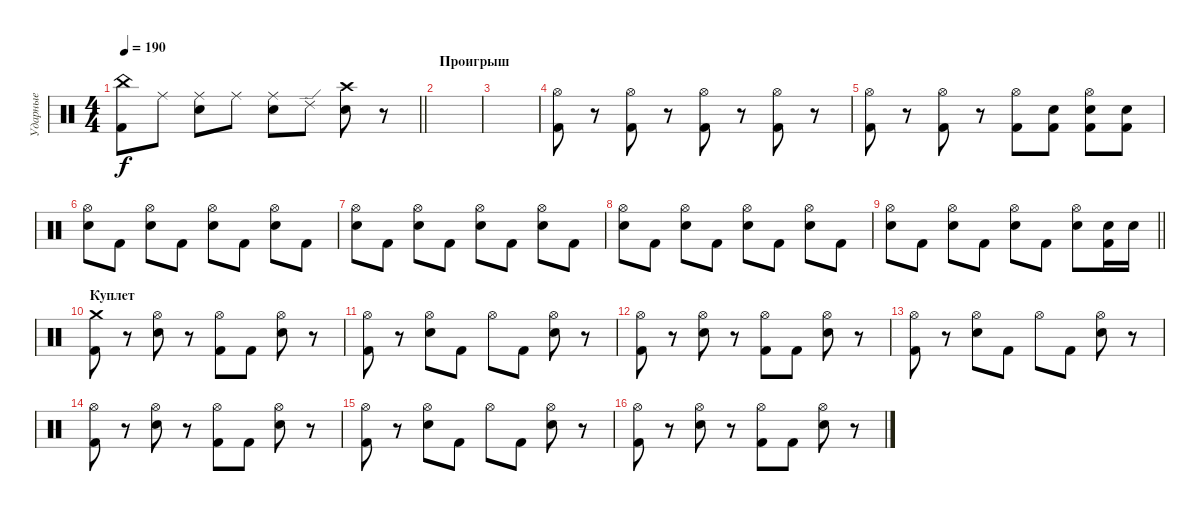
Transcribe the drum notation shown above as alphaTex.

\track ("Ударные" "Ударные") {instrument percussion}
\staff {score}
\articulation defaults
\ts (4 4)
\tempo 190
\clef neutral
\barLineRight lightlight
\ks c
("China (hit)" "Kick (hit) 2").8{dy f} "Ride (middle)".8 ("Ride (middle)" "Electric Snare (hit)").8 "Ride (middle)".8 ("Ride (middle)" "Electric Snare (hit)").8 "Ride (edge) 2".8 ("Crash high (hit)" "Electric Snare (hit)").8 r.8 |
\section ("" "Проигрыш")
|
|
("Hi-Hat (open)" "Kick (hit) 2").8 r.8 ("Hi-Hat (open)" "Kick (hit) 2").8 r.8 ("Hi-Hat (open)" "Kick (hit) 2").8 r.8 ("Hi-Hat (open)" "Kick (hit) 2").8 r.8 |
("Hi-Hat (open)" "Kick (hit) 2").8 r.8 ("Hi-Hat (open)" "Kick (hit) 2").8 r.8 ("Hi-Hat (open)" "Kick (hit) 2").8 ("Kick (hit) 2" "Electric Snare (hit)").8 ("Hi-Hat (open)" "Kick (hit) 2" "Electric Snare (hit)").8 ("Kick (hit) 2" "Electric Snare (hit)").8 |
("Hi-Hat (open)" "Electric Snare (hit)").8 "Kick (hit) 2".8 ("Hi-Hat (open)" "Electric Snare (hit)").8 "Kick (hit) 2".8 ("Hi-Hat (open)" "Electric Snare (hit)").8 "Kick (hit) 2".8 ("Hi-Hat (open)" "Electric Snare (hit)").8 "Kick (hit) 2".8 |
("Hi-Hat (open)" "Electric Snare (hit)").8 "Kick (hit) 2".8 ("Hi-Hat (open)" "Electric Snare (hit)").8 "Kick (hit) 2".8 ("Hi-Hat (open)" "Electric Snare (hit)").8 "Kick (hit) 2".8 ("Hi-Hat (open)" "Electric Snare (hit)").8 "Kick (hit) 2".8 |
("Hi-Hat (open)" "Electric Snare (hit)").8 "Kick (hit) 2".8 ("Hi-Hat (open)" "Electric Snare (hit)").8 "Kick (hit) 2".8 ("Hi-Hat (open)" "Electric Snare (hit)").8 "Kick (hit) 2".8 ("Hi-Hat (open)" "Electric Snare (hit)").8 "Kick (hit) 2".8 |
\barLineRight lightlight
("Hi-Hat (open)" "Electric Snare (hit)").8 "Kick (hit) 2".8 ("Hi-Hat (open)" "Electric Snare (hit)").8 "Kick (hit) 2".8 ("Hi-Hat (open)" "Electric Snare (hit)").8 "Kick (hit) 2".8 ("Hi-Hat (open)" "Electric Snare (hit)").8 ("Kick (hit) 2" "Electric Snare (hit)").16 "Electric Snare (hit)".16 |
\section ("" "Куплет")
("Crash medium (hit)" "Kick (hit) 2").8 r.8 ("Hi-Hat (open)" "Electric Snare (hit)").8 r.8 ("Hi-Hat (open)" "Kick (hit) 2").8 "Kick (hit) 2".8 ("Hi-Hat (open)" "Electric Snare (hit)").8 r.8 |
("Hi-Hat (open)" "Kick (hit) 2").8 r.8 ("Hi-Hat (open)" "Electric Snare (hit)").8 "Kick (hit) 2".8 "Hi-Hat (open)".8 "Kick (hit) 2".8 ("Hi-Hat (open)" "Electric Snare (hit)").8 r.8 |
("Hi-Hat (open)" "Kick (hit) 2").8 r.8 ("Hi-Hat (open)" "Electric Snare (hit)").8 r.8 ("Hi-Hat (open)" "Kick (hit) 2").8 "Kick (hit) 2".8 ("Hi-Hat (open)" "Electric Snare (hit)").8 r.8 |
("Hi-Hat (open)" "Kick (hit) 2").8 r.8 ("Hi-Hat (open)" "Electric Snare (hit)").8 "Kick (hit) 2".8 "Hi-Hat (open)".8 "Kick (hit) 2".8 ("Hi-Hat (open)" "Electric Snare (hit)").8 r.8 |
("Hi-Hat (open)" "Kick (hit) 2").8 r.8 ("Hi-Hat (open)" "Electric Snare (hit)").8 r.8 ("Hi-Hat (open)" "Kick (hit) 2").8 "Kick (hit) 2".8 ("Hi-Hat (open)" "Electric Snare (hit)").8 r.8 |
("Hi-Hat (open)" "Kick (hit) 2").8 r.8 ("Hi-Hat (open)" "Electric Snare (hit)").8 "Kick (hit) 2".8 "Hi-Hat (open)".8 "Kick (hit) 2".8 ("Hi-Hat (open)" "Electric Snare (hit)").8 r.8 |
("Hi-Hat (open)" "Kick (hit) 2").8 r.8 ("Hi-Hat (open)" "Electric Snare (hit)").8 r.8 ("Hi-Hat (open)" "Kick (hit) 2").8 "Kick (hit) 2".8 ("Hi-Hat (open)" "Electric Snare (hit)").8 r.8
